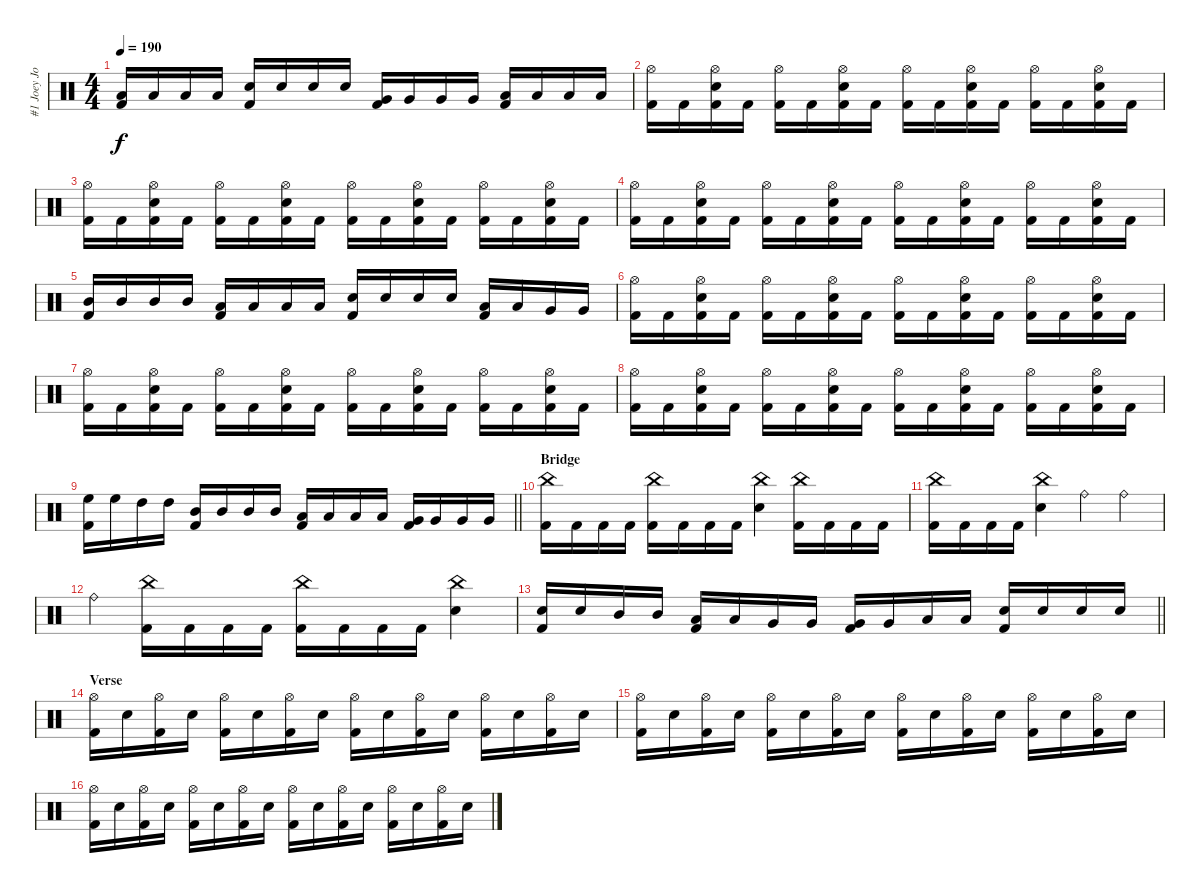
\track ("#1 Joey Jordison" "#1 Joey Jo") {instrument percussion}
\staff {score}
\articulation defaults
\ts (4 4)
\tempo 190
\clef neutral
\ks c
("Low Tom (hit)" "Kick (hit) 2").16{dy f} "Low Tom (hit)".16 "Low Tom (hit)".16 "Low Tom (hit)".16 ("Electric Snare (hit)" "Kick (hit) 2").16 "Electric Snare (hit)".16 "Electric Snare (hit)".16 "Electric Snare (hit)".16 ("Very Low Tom (hit)" "Kick (hit) 2").16 "Very Low Tom (hit)".16 "Very Low Tom (hit)".16 "Very Low Tom (hit)".16 ("Low Floor Tom (hit)" "Kick (hit) 2").16 "Low Floor Tom (hit)".16 "Low Floor Tom (hit)".16 "Low Floor Tom (hit)".16 |
("Hi-Hat (open)" "Kick (hit) 2").16 "Kick (hit) 2".16 ("Hi-Hat (open)" "Electric Snare (hit)" "Kick (hit) 2").16 "Kick (hit) 2".16 ("Hi-Hat (open)" "Kick (hit) 2").16 "Kick (hit) 2".16 ("Hi-Hat (open)" "Electric Snare (hit)" "Kick (hit) 2").16 "Kick (hit) 2".16 ("Hi-Hat (open)" "Kick (hit) 2").16 "Kick (hit) 2".16 ("Hi-Hat (open)" "Electric Snare (hit)" "Kick (hit) 2").16 "Kick (hit) 2".16 ("Hi-Hat (open)" "Kick (hit) 2").16 "Kick (hit) 2".16 ("Hi-Hat (open)" "Electric Snare (hit)" "Kick (hit) 2").16 "Kick (hit) 2".16 |
("Hi-Hat (open)" "Kick (hit) 2").16 "Kick (hit) 2".16 ("Hi-Hat (open)" "Electric Snare (hit)" "Kick (hit) 2").16 "Kick (hit) 2".16 ("Hi-Hat (open)" "Kick (hit) 2").16 "Kick (hit) 2".16 ("Hi-Hat (open)" "Electric Snare (hit)" "Kick (hit) 2").16 "Kick (hit) 2".16 ("Hi-Hat (open)" "Kick (hit) 2").16 "Kick (hit) 2".16 ("Hi-Hat (open)" "Electric Snare (hit)" "Kick (hit) 2").16 "Kick (hit) 2".16 ("Hi-Hat (open)" "Kick (hit) 2").16 "Kick (hit) 2".16 ("Hi-Hat (open)" "Electric Snare (hit)" "Kick (hit) 2").16 "Kick (hit) 2".16 |
("Hi-Hat (open)" "Kick (hit) 2").16 "Kick (hit) 2".16 ("Hi-Hat (open)" "Electric Snare (hit)" "Kick (hit) 2").16 "Kick (hit) 2".16 ("Hi-Hat (open)" "Kick (hit) 2").16 "Kick (hit) 2".16 ("Hi-Hat (open)" "Electric Snare (hit)" "Kick (hit) 2").16 "Kick (hit) 2".16 ("Hi-Hat (open)" "Kick (hit) 2").16 "Kick (hit) 2".16 ("Hi-Hat (open)" "Electric Snare (hit)" "Kick (hit) 2").16 "Kick (hit) 2".16 ("Hi-Hat (open)" "Kick (hit) 2").16 "Kick (hit) 2".16 ("Hi-Hat (open)" "Electric Snare (hit)" "Kick (hit) 2").16 "Kick (hit) 2".16 |
("Mid Tom (hit)" "Kick (hit) 2").16 "Mid Tom (hit)".16 "Mid Tom (hit)".16 "Mid Tom (hit)".16 ("Low Floor Tom (hit)" "Kick (hit) 2").16 "Low Floor Tom (hit)".16 "Low Floor Tom (hit)".16 "Low Floor Tom (hit)".16 ("Electric Snare (hit)" "Kick (hit) 2").16 "Electric Snare (hit)".16 "Electric Snare (hit)".16 "Electric Snare (hit)".16 ("Low Tom (hit)" "Kick (hit) 2").16 "Low Tom (hit)".16 "Very Low Tom (hit)".16 "Very Low Tom (hit)".16 |
("Hi-Hat (open)" "Kick (hit) 2").16 "Kick (hit) 2".16 ("Hi-Hat (open)" "Electric Snare (hit)" "Kick (hit) 2").16 "Kick (hit) 2".16 ("Hi-Hat (open)" "Kick (hit) 2").16 "Kick (hit) 2".16 ("Hi-Hat (open)" "Electric Snare (hit)" "Kick (hit) 2").16 "Kick (hit) 2".16 ("Hi-Hat (open)" "Kick (hit) 2").16 "Kick (hit) 2".16 ("Hi-Hat (open)" "Electric Snare (hit)" "Kick (hit) 2").16 "Kick (hit) 2".16 ("Hi-Hat (open)" "Kick (hit) 2").16 "Kick (hit) 2".16 ("Hi-Hat (open)" "Electric Snare (hit)" "Kick (hit) 2").16 "Kick (hit) 2".16 |
("Hi-Hat (open)" "Kick (hit) 2").16 "Kick (hit) 2".16 ("Hi-Hat (open)" "Electric Snare (hit)" "Kick (hit) 2").16 "Kick (hit) 2".16 ("Hi-Hat (open)" "Kick (hit) 2").16 "Kick (hit) 2".16 ("Hi-Hat (open)" "Electric Snare (hit)" "Kick (hit) 2").16 "Kick (hit) 2".16 ("Hi-Hat (open)" "Kick (hit) 2").16 "Kick (hit) 2".16 ("Hi-Hat (open)" "Electric Snare (hit)" "Kick (hit) 2").16 "Kick (hit) 2".16 ("Hi-Hat (open)" "Kick (hit) 2").16 "Kick (hit) 2".16 ("Hi-Hat (open)" "Electric Snare (hit)" "Kick (hit) 2").16 "Kick (hit) 2".16 |
("Hi-Hat (open)" "Kick (hit) 2").16 "Kick (hit) 2".16 ("Hi-Hat (open)" "Electric Snare (hit)" "Kick (hit) 2").16 "Kick (hit) 2".16 ("Hi-Hat (open)" "Kick (hit) 2").16 "Kick (hit) 2".16 ("Hi-Hat (open)" "Electric Snare (hit)" "Kick (hit) 2").16 "Kick (hit) 2".16 ("Hi-Hat (open)" "Kick (hit) 2").16 "Kick (hit) 2".16 ("Hi-Hat (open)" "Electric Snare (hit)" "Kick (hit) 2").16 "Kick (hit) 2".16 ("Hi-Hat (open)" "Kick (hit) 2").16 "Kick (hit) 2".16 ("Hi-Hat (open)" "Electric Snare (hit)" "Kick (hit) 2").16 "Kick (hit) 2".16 |
\barLineRight lightlight
("High Floor Tom (hit)" "Kick (hit) 2").16 "High Floor Tom (hit)".16 "High Tom (hit)".16 "High Tom (hit)".16 ("Mid Tom (hit)" "Kick (hit) 2").16 "Mid Tom (hit)".16 "Mid Tom (hit)".16 "Mid Tom (hit)".16 ("Low Tom (hit)" "Kick (hit) 2").16 "Low Tom (hit)".16 "Low Tom (hit)".16 "Low Tom (hit)".16 ("Very Low Tom (hit)" "Kick (hit) 2").16 "Very Low Tom (hit)".16 "Very Low Tom (hit)".16 "Very Low Tom (hit)".16 |
\section ("" "Bridge")
("China (hit)" "Kick (hit) 2").16 "Kick (hit) 2".16 "Kick (hit) 2".16 "Kick (hit) 2".16 ("China (hit)" "Kick (hit) 2").16 "Kick (hit) 2".16 "Kick (hit) 2".16 "Kick (hit) 2".16 ("China (hit)" "Electric Snare (hit)").4 ("China (hit)" "Kick (hit) 2").16 "Kick (hit) 2".16 "Kick (hit) 2".16 "Kick (hit) 2".16 |
("China (hit)" "Kick (hit) 2").16 "Kick (hit) 2".16 "Kick (hit) 2".16 "Kick (hit) 2".16 ("China (hit)" "Electric Snare (hit)").4 "Ride (bell)".4 "Ride (bell)".4 |
"Ride (bell)".4 ("China (hit)" "Kick (hit) 2").16 "Kick (hit) 2".16 "Kick (hit) 2".16 "Kick (hit) 2".16 ("China (hit)" "Kick (hit) 2").16 "Kick (hit) 2".16 "Kick (hit) 2".16 "Kick (hit) 2".16 ("China (hit)" "Electric Snare (hit)").4 |
\barLineRight lightlight
("Electric Snare (hit)" "Kick (hit) 2").16 "Electric Snare (hit)".16 "Mid Tom (hit)".16 "Mid Tom (hit)".16 ("Low Tom (hit)" "Kick (hit) 2").16 "Low Tom (hit)".16 "Very Low Tom (hit)".16 "Very Low Tom (hit)".16 ("Very Low Tom (hit)" "Kick (hit) 2").16 "Very Low Tom (hit)".16 "Low Floor Tom (hit)".16 "Low Floor Tom (hit)".16 ("Electric Snare (hit)" "Kick (hit) 2").16 "Electric Snare (hit)".16 "Electric Snare (hit)".16 "Electric Snare (hit)".16 |
\section ("" "Verse")
("Hi-Hat (open)" "Kick (hit) 2").16 "Electric Snare (hit)".16 ("Hi-Hat (open)" "Kick (hit) 2").16 "Electric Snare (hit)".16 ("Hi-Hat (open)" "Kick (hit) 2").16 "Electric Snare (hit)".16 ("Hi-Hat (open)" "Kick (hit) 2").16 "Electric Snare (hit)".16 ("Hi-Hat (open)" "Kick (hit) 2").16 "Electric Snare (hit)".16 ("Hi-Hat (open)" "Kick (hit) 2").16 "Electric Snare (hit)".16 ("Hi-Hat (open)" "Kick (hit) 2").16 "Electric Snare (hit)".16 ("Hi-Hat (open)" "Kick (hit) 2").16 "Electric Snare (hit)".16 |
("Hi-Hat (open)" "Kick (hit) 2").16 "Electric Snare (hit)".16 ("Hi-Hat (open)" "Kick (hit) 2").16 "Electric Snare (hit)".16 ("Hi-Hat (open)" "Kick (hit) 2").16 "Electric Snare (hit)".16 ("Hi-Hat (open)" "Kick (hit) 2").16 "Electric Snare (hit)".16 ("Hi-Hat (open)" "Kick (hit) 2").16 "Electric Snare (hit)".16 ("Hi-Hat (open)" "Kick (hit) 2").16 "Electric Snare (hit)".16 ("Hi-Hat (open)" "Kick (hit) 2").16 "Electric Snare (hit)".16 ("Hi-Hat (open)" "Kick (hit) 2").16 "Electric Snare (hit)".16 |
("Hi-Hat (open)" "Kick (hit) 2").16 "Electric Snare (hit)".16 ("Hi-Hat (open)" "Kick (hit) 2").16 "Electric Snare (hit)".16 ("Hi-Hat (open)" "Kick (hit) 2").16 "Electric Snare (hit)".16 ("Hi-Hat (open)" "Kick (hit) 2").16 "Electric Snare (hit)".16 ("Hi-Hat (open)" "Kick (hit) 2").16 "Electric Snare (hit)".16 ("Hi-Hat (open)" "Kick (hit) 2").16 "Electric Snare (hit)".16 ("Hi-Hat (open)" "Kick (hit) 2").16 "Electric Snare (hit)".16 ("Hi-Hat (open)" "Kick (hit) 2").16 "Electric Snare (hit)".16
